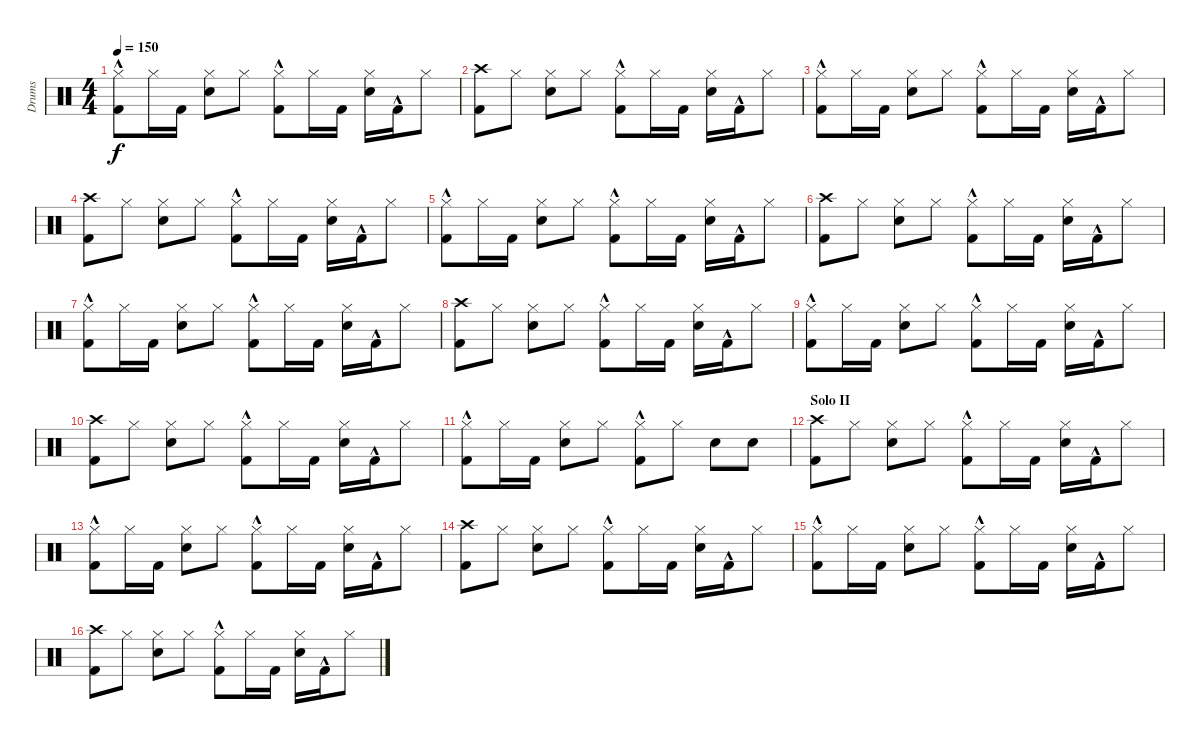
\track ("Drums" "Drums") {instrument percussion}
\staff {score}
\articulation defaults
\ts (4 4)
\tempo 150
\clef neutral
\ks c
("Hi-Hat (closed)" "Kick (hit) 2"{hac}).8{dy f} "Hi-Hat (closed)".16 "Kick (hit) 2".16 ("Hi-Hat (closed)" "Electric Snare (hit)").8 "Hi-Hat (closed)".8 ("Hi-Hat (closed)" "Kick (hit) 2"{hac}).8 "Hi-Hat (closed)".16 "Kick (hit) 2".16 ("Hi-Hat (closed)" "Electric Snare (hit)").16 "Kick (hit) 2"{hac}.16 "Hi-Hat (closed)".8 |
("Crash high (hit)" "Kick (hit) 2").8 "Hi-Hat (closed)".8 ("Hi-Hat (closed)" "Electric Snare (hit)").8 "Hi-Hat (closed)".8 ("Hi-Hat (closed)" "Kick (hit) 2"{hac}).8 "Hi-Hat (closed)".16 "Kick (hit) 2".16 ("Hi-Hat (closed)" "Electric Snare (hit)").16 "Kick (hit) 2"{hac}.16 "Hi-Hat (closed)".8 |
("Hi-Hat (closed)" "Kick (hit) 2"{hac}).8 "Hi-Hat (closed)".16 "Kick (hit) 2".16 ("Hi-Hat (closed)" "Electric Snare (hit)").8 "Hi-Hat (closed)".8 ("Hi-Hat (closed)" "Kick (hit) 2"{hac}).8 "Hi-Hat (closed)".16 "Kick (hit) 2".16 ("Hi-Hat (closed)" "Electric Snare (hit)").16 "Kick (hit) 2"{hac}.16 "Hi-Hat (closed)".8 |
("Crash high (hit)" "Kick (hit) 2").8 "Hi-Hat (closed)".8 ("Hi-Hat (closed)" "Electric Snare (hit)").8 "Hi-Hat (closed)".8 ("Hi-Hat (closed)" "Kick (hit) 2"{hac}).8 "Hi-Hat (closed)".16 "Kick (hit) 2".16 ("Hi-Hat (closed)" "Electric Snare (hit)").16 "Kick (hit) 2"{hac}.16 "Hi-Hat (closed)".8 |
("Hi-Hat (closed)" "Kick (hit) 2"{hac}).8 "Hi-Hat (closed)".16 "Kick (hit) 2".16 ("Hi-Hat (closed)" "Electric Snare (hit)").8 "Hi-Hat (closed)".8 ("Hi-Hat (closed)" "Kick (hit) 2"{hac}).8 "Hi-Hat (closed)".16 "Kick (hit) 2".16 ("Hi-Hat (closed)" "Electric Snare (hit)").16 "Kick (hit) 2"{hac}.16 "Hi-Hat (closed)".8 |
("Crash high (hit)" "Kick (hit) 2").8 "Hi-Hat (closed)".8 ("Hi-Hat (closed)" "Electric Snare (hit)").8 "Hi-Hat (closed)".8 ("Hi-Hat (closed)" "Kick (hit) 2"{hac}).8 "Hi-Hat (closed)".16 "Kick (hit) 2".16 ("Hi-Hat (closed)" "Electric Snare (hit)").16 "Kick (hit) 2"{hac}.16 "Hi-Hat (closed)".8 |
("Hi-Hat (closed)" "Kick (hit) 2"{hac}).8 "Hi-Hat (closed)".16 "Kick (hit) 2".16 ("Hi-Hat (closed)" "Electric Snare (hit)").8 "Hi-Hat (closed)".8 ("Hi-Hat (closed)" "Kick (hit) 2"{hac}).8 "Hi-Hat (closed)".16 "Kick (hit) 2".16 ("Hi-Hat (closed)" "Electric Snare (hit)").16 "Kick (hit) 2"{hac}.16 "Hi-Hat (closed)".8 |
("Crash high (hit)" "Kick (hit) 2").8 "Hi-Hat (closed)".8 ("Hi-Hat (closed)" "Electric Snare (hit)").8 "Hi-Hat (closed)".8 ("Hi-Hat (closed)" "Kick (hit) 2"{hac}).8 "Hi-Hat (closed)".16 "Kick (hit) 2".16 ("Hi-Hat (closed)" "Electric Snare (hit)").16 "Kick (hit) 2"{hac}.16 "Hi-Hat (closed)".8 |
("Hi-Hat (closed)" "Kick (hit) 2"{hac}).8 "Hi-Hat (closed)".16 "Kick (hit) 2".16 ("Hi-Hat (closed)" "Electric Snare (hit)").8 "Hi-Hat (closed)".8 ("Hi-Hat (closed)" "Kick (hit) 2"{hac}).8 "Hi-Hat (closed)".16 "Kick (hit) 2".16 ("Hi-Hat (closed)" "Electric Snare (hit)").16 "Kick (hit) 2"{hac}.16 "Hi-Hat (closed)".8 |
("Crash high (hit)" "Kick (hit) 2").8 "Hi-Hat (closed)".8 ("Hi-Hat (closed)" "Electric Snare (hit)").8 "Hi-Hat (closed)".8 ("Hi-Hat (closed)" "Kick (hit) 2"{hac}).8 "Hi-Hat (closed)".16 "Kick (hit) 2".16 ("Hi-Hat (closed)" "Electric Snare (hit)").16 "Kick (hit) 2"{hac}.16 "Hi-Hat (closed)".8 |
("Hi-Hat (closed)" "Kick (hit) 2"{hac}).8 "Hi-Hat (closed)".16 "Kick (hit) 2".16 ("Hi-Hat (closed)" "Electric Snare (hit)").8 "Hi-Hat (closed)".8 ("Hi-Hat (closed)" "Kick (hit) 2"{hac}).8 "Hi-Hat (closed)".8 "Electric Snare (hit)".8 "Electric Snare (hit)".8 |
\section ("" "Solo II")
("Crash high (hit)" "Kick (hit) 2").8 "Hi-Hat (closed)".8 ("Hi-Hat (closed)" "Electric Snare (hit)").8 "Hi-Hat (closed)".8 ("Hi-Hat (closed)" "Kick (hit) 2"{hac}).8 "Hi-Hat (closed)".16 "Kick (hit) 2".16 ("Hi-Hat (closed)" "Electric Snare (hit)").16 "Kick (hit) 2"{hac}.16 "Hi-Hat (closed)".8 |
("Hi-Hat (closed)" "Kick (hit) 2"{hac}).8 "Hi-Hat (closed)".16 "Kick (hit) 2".16 ("Hi-Hat (closed)" "Electric Snare (hit)").8 "Hi-Hat (closed)".8 ("Hi-Hat (closed)" "Kick (hit) 2"{hac}).8 "Hi-Hat (closed)".16 "Kick (hit) 2".16 ("Hi-Hat (closed)" "Electric Snare (hit)").16 "Kick (hit) 2"{hac}.16 "Hi-Hat (closed)".8 |
("Crash high (hit)" "Kick (hit) 2").8 "Hi-Hat (closed)".8 ("Hi-Hat (closed)" "Electric Snare (hit)").8 "Hi-Hat (closed)".8 ("Hi-Hat (closed)" "Kick (hit) 2"{hac}).8 "Hi-Hat (closed)".16 "Kick (hit) 2".16 ("Hi-Hat (closed)" "Electric Snare (hit)").16 "Kick (hit) 2"{hac}.16 "Hi-Hat (closed)".8 |
("Hi-Hat (closed)" "Kick (hit) 2"{hac}).8 "Hi-Hat (closed)".16 "Kick (hit) 2".16 ("Hi-Hat (closed)" "Electric Snare (hit)").8 "Hi-Hat (closed)".8 ("Hi-Hat (closed)" "Kick (hit) 2"{hac}).8 "Hi-Hat (closed)".16 "Kick (hit) 2".16 ("Hi-Hat (closed)" "Electric Snare (hit)").16 "Kick (hit) 2"{hac}.16 "Hi-Hat (closed)".8 |
("Crash high (hit)" "Kick (hit) 2").8 "Hi-Hat (closed)".8 ("Hi-Hat (closed)" "Electric Snare (hit)").8 "Hi-Hat (closed)".8 ("Hi-Hat (closed)" "Kick (hit) 2"{hac}).8 "Hi-Hat (closed)".16 "Kick (hit) 2".16 ("Hi-Hat (closed)" "Electric Snare (hit)").16 "Kick (hit) 2"{hac}.16 "Hi-Hat (closed)".8
